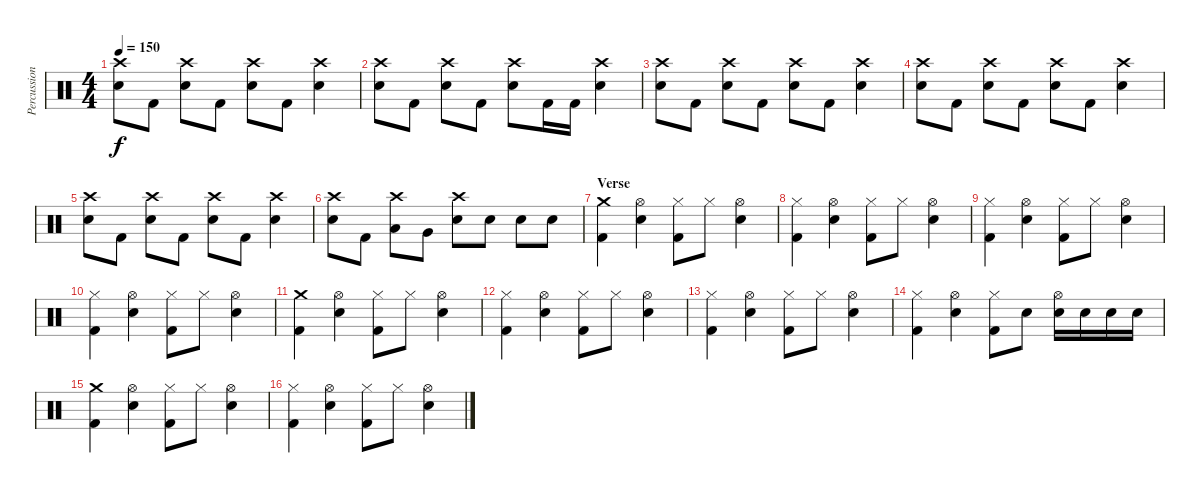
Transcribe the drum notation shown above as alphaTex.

\track ("Percussion" "Percussion") {instrument percussion}
\staff {score}
\articulation defaults
\ts (4 4)
\tempo 150
\clef neutral
\ks c
("Crash high (hit)" "Electric Snare (hit)").8{dy f} "Kick (hit) 2".8 ("Crash high (hit)" "Electric Snare (hit)").8 "Kick (hit) 2".8 ("Crash high (hit)" "Electric Snare (hit)").8 "Kick (hit) 2".8 ("Crash high (hit)" "Electric Snare (hit)").4 |
("Crash high (hit)" "Electric Snare (hit)").8 "Kick (hit) 2".8 ("Crash high (hit)" "Electric Snare (hit)").8 "Kick (hit) 2".8 ("Crash high (hit)" "Electric Snare (hit)").8 "Kick (hit) 2".16 "Kick (hit) 2".16 ("Crash high (hit)" "Electric Snare (hit)").4 |
("Crash high (hit)" "Electric Snare (hit)").8 "Kick (hit) 2".8 ("Crash high (hit)" "Electric Snare (hit)").8 "Kick (hit) 2".8 ("Crash high (hit)" "Electric Snare (hit)").8 "Kick (hit) 2".8 ("Crash high (hit)" "Electric Snare (hit)").4 |
("Crash high (hit)" "Electric Snare (hit)").8 "Kick (hit) 2".8 ("Crash high (hit)" "Electric Snare (hit)").8 "Kick (hit) 2".8 ("Crash high (hit)" "Electric Snare (hit)").8 "Kick (hit) 2".8 ("Crash high (hit)" "Electric Snare (hit)").4 |
("Crash high (hit)" "Electric Snare (hit)").8 "Kick (hit) 2".8 ("Crash high (hit)" "Electric Snare (hit)").8 "Kick (hit) 2".8 ("Crash high (hit)" "Electric Snare (hit)").8 "Kick (hit) 2".8 ("Crash high (hit)" "Electric Snare (hit)").4 |
("Crash high (hit)" "Electric Snare (hit)").8 "Kick (hit) 2".8 ("Crash high (hit)" "Low Tom (hit)").8 "Very Low Tom (hit)".8 ("Crash high (hit)" "Electric Snare (hit)").8 "Electric Snare (hit)".8 "Electric Snare (hit)".8 "Electric Snare (hit)".8 |
\section ("" "Verse")
("Crash medium (hit)" "Kick (hit) 2").4 ("Hi-Hat (open)" "Electric Snare (hit)").4 ("Hi-Hat (closed)" "Kick (hit) 2").8 "Hi-Hat (closed)".8 ("Hi-Hat (open)" "Electric Snare (hit)").4 |
("Hi-Hat (closed)" "Kick (hit) 2").4 ("Hi-Hat (open)" "Electric Snare (hit)").4 ("Hi-Hat (closed)" "Kick (hit) 2").8 "Hi-Hat (closed)".8 ("Hi-Hat (open)" "Electric Snare (hit)").4 |
("Hi-Hat (closed)" "Kick (hit) 2").4 ("Hi-Hat (open)" "Electric Snare (hit)").4 ("Hi-Hat (closed)" "Kick (hit) 2").8 "Hi-Hat (closed)".8 ("Hi-Hat (open)" "Electric Snare (hit)").4 |
("Hi-Hat (closed)" "Kick (hit) 2").4 ("Hi-Hat (open)" "Electric Snare (hit)").4 ("Hi-Hat (closed)" "Kick (hit) 2").8 "Hi-Hat (closed)".8 ("Hi-Hat (open)" "Electric Snare (hit)").4 |
("Crash medium (hit)" "Kick (hit) 2").4 ("Hi-Hat (open)" "Electric Snare (hit)").4 ("Hi-Hat (closed)" "Kick (hit) 2").8 "Hi-Hat (closed)".8 ("Hi-Hat (open)" "Electric Snare (hit)").4 |
("Hi-Hat (closed)" "Kick (hit) 2").4 ("Hi-Hat (open)" "Electric Snare (hit)").4 ("Hi-Hat (closed)" "Kick (hit) 2").8 "Hi-Hat (closed)".8 ("Hi-Hat (open)" "Electric Snare (hit)").4 |
("Hi-Hat (closed)" "Kick (hit) 2").4 ("Hi-Hat (open)" "Electric Snare (hit)").4 ("Hi-Hat (closed)" "Kick (hit) 2").8 "Hi-Hat (closed)".8 ("Hi-Hat (open)" "Electric Snare (hit)").4 |
("Hi-Hat (closed)" "Kick (hit) 2").4 ("Hi-Hat (open)" "Electric Snare (hit)").4 ("Hi-Hat (closed)" "Kick (hit) 2").8 "Electric Snare (hit)".8 ("Hi-Hat (open)" "Electric Snare (hit)").16 "Electric Snare (hit)".16 "Electric Snare (hit)".16 "Electric Snare (hit)".16 |
("Crash medium (hit)" "Kick (hit) 2").4 ("Hi-Hat (open)" "Electric Snare (hit)").4 ("Hi-Hat (closed)" "Kick (hit) 2").8 "Hi-Hat (closed)".8 ("Hi-Hat (open)" "Electric Snare (hit)").4 |
("Hi-Hat (closed)" "Kick (hit) 2").4 ("Hi-Hat (open)" "Electric Snare (hit)").4 ("Hi-Hat (closed)" "Kick (hit) 2").8 "Hi-Hat (closed)".8 ("Hi-Hat (open)" "Electric Snare (hit)").4
